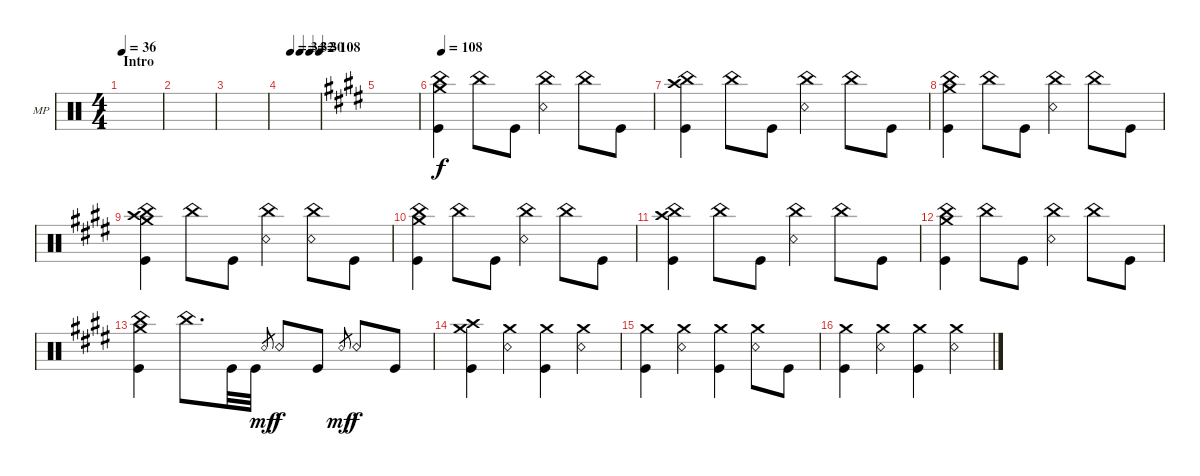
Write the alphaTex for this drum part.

\defaultSystemsLayout 4
\bracketExtendMode groupsimilarinstruments
\firstSystemTrackNameOrientation horizontal
\otherSystemsTrackNameOrientation horizontal
\track ("Mike Portnoy" "MP") {instrument percussion}
\staff {score}
\articulation defaults
\ts (4 4)
\section ("" "Intro")
\tempo 36
\clef neutral
\ks c
|
|
|
\tempo (34 0.25)
\tempo (32 0.5)
\tempo (30 0.75)
\tempo (108 1)
|
\ks e
|
\tempo 108
("China (hit)" "Crash medium (hit)" "Kick (hit)").4 "China (hit)".8 "Kick (hit)".8 ("China (hit)" "Snare (rim shot)").4 "China (hit)".8 "Kick (hit)".8 |
("China (hit)" "Kick (hit)" "Crash high (hit)").4 "China (hit)".8 "Kick (hit)".8 ("China (hit)" "Snare (rim shot)").4 "China (hit)".8 "Kick (hit)".8 |
("China (hit)" "Crash medium (hit)" "Kick (hit)").4 "China (hit)".8 "Kick (hit)".8 ("China (hit)" "Snare (rim shot)").4 "China (hit)".8 "Kick (hit)".8 |
("China (hit)" "Crash medium (hit)" "Kick (hit)" "Crash high (hit)").4 "China (hit)".8 "Kick (hit)".8 ("China (hit)" "Snare (rim shot)").4 ("China (hit)" "Snare (rim shot)").8 "Kick (hit)".8 |
("China (hit)" "Crash medium (hit)" "Kick (hit)").4 "China (hit)".8 "Kick (hit)".8 ("China (hit)" "Snare (rim shot)").4 "China (hit)".8 "Kick (hit)".8 |
("China (hit)" "Kick (hit)" "Crash high (hit)").4 "China (hit)".8 "Kick (hit)".8 ("China (hit)" "Snare (rim shot)").4 "China (hit)".8 "Kick (hit)".8 |
("China (hit)" "Crash medium (hit)" "Kick (hit)").4 "China (hit)".8 "Kick (hit)".8 ("China (hit)" "Snare (rim shot)").4 "China (hit)".8 "Kick (hit)".8 |
("China (hit)" "Crash medium (hit)" "Kick (hit)").4 "China (hit)".8{d} "Kick (hit)".32 "Kick (hit)".32 "Snare (rim shot)".8{gr dy mf} "Snare (rim shot)".8{dy f} "Kick (hit)".8 "Snare (rim shot)".8{gr dy mf} "Snare (rim shot)".8{dy f} "Kick (hit)".8 |
("Crash medium (hit)" "Crash high (hit)" "Kick (hit)").4 ("Crash medium (hit)" "Snare (rim shot)").4 ("Crash medium (hit)" "Kick (hit)").4 ("Crash medium (hit)" "Snare (rim shot)").4 |
("Crash medium (hit)" "Kick (hit)").4 ("Crash medium (hit)" "Snare (rim shot)").4 ("Crash medium (hit)" "Kick (hit)").4 ("Crash medium (hit)" "Snare (rim shot)").8 "Kick (hit)".8 |
("Crash medium (hit)" "Kick (hit)").4 ("Crash medium (hit)" "Snare (rim shot)").4 ("Crash medium (hit)" "Kick (hit)").4 ("Crash medium (hit)" "Snare (rim shot)").4
